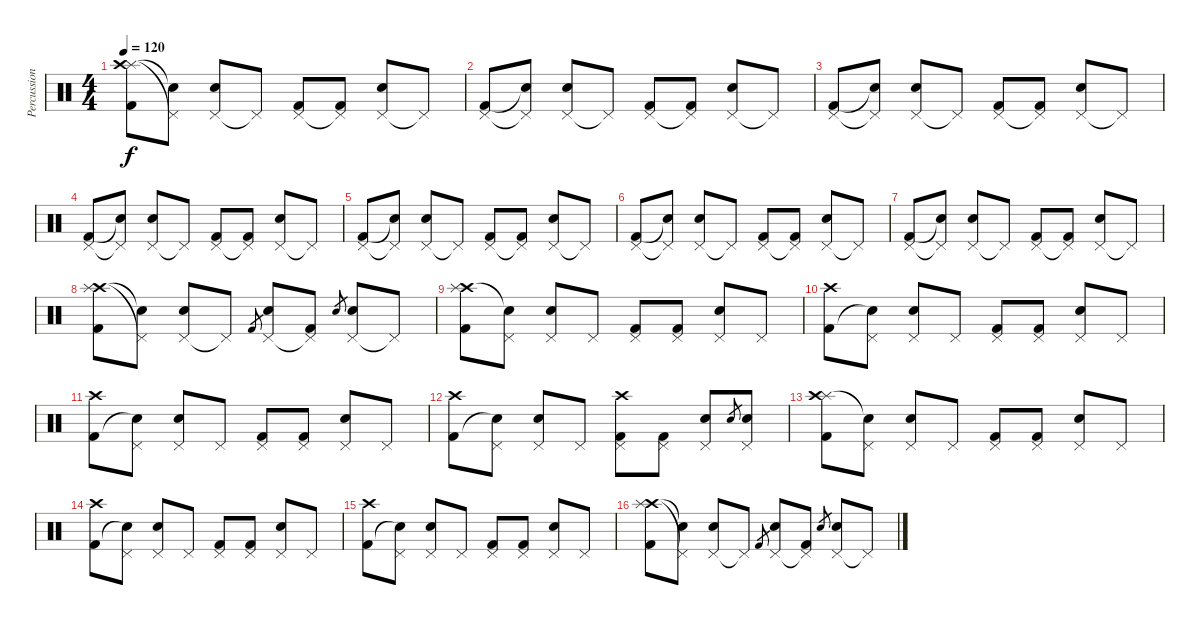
\track ("Percussion" "Percussion") {instrument percussion}
\staff {score}
\articulation defaults
\ts (4 4)
\tempo 120
\clef neutral
\ks c
("Splash (hit)" "Crash high (hit)" "Kick (hit) 2").8{dy f} ("Pedal Hi-Hat (hit)"{t} "Snare (hit)"{t}).8 ("Pedal Hi-Hat (hit)" "Electric Snare (hit)").8 "Pedal Hi-Hat (hit)"{t}.8 ("Pedal Hi-Hat (hit)" "Kick (hit) 2").8 ("Pedal Hi-Hat (hit)"{t} "Kick (hit) 2").8 ("Pedal Hi-Hat (hit)" "Electric Snare (hit)").8 "Pedal Hi-Hat (hit)"{t}.8 |
("Pedal Hi-Hat (hit)" "Kick (hit) 2").8 ("Pedal Hi-Hat (hit)"{t} "Snare (hit)"{t}).8 ("Pedal Hi-Hat (hit)" "Electric Snare (hit)").8 "Pedal Hi-Hat (hit)"{t}.8 ("Pedal Hi-Hat (hit)" "Kick (hit) 2").8 ("Pedal Hi-Hat (hit)"{t} "Kick (hit) 2").8 ("Pedal Hi-Hat (hit)" "Electric Snare (hit)").8 "Pedal Hi-Hat (hit)"{t}.8 |
("Pedal Hi-Hat (hit)" "Kick (hit) 2").8 ("Pedal Hi-Hat (hit)"{t} "Snare (hit)"{t}).8 ("Pedal Hi-Hat (hit)" "Electric Snare (hit)").8 "Pedal Hi-Hat (hit)"{t}.8 ("Pedal Hi-Hat (hit)" "Kick (hit) 2").8 ("Pedal Hi-Hat (hit)"{t} "Kick (hit) 2").8 ("Pedal Hi-Hat (hit)" "Electric Snare (hit)").8 "Pedal Hi-Hat (hit)"{t}.8 |
("Pedal Hi-Hat (hit)" "Kick (hit) 2").8 ("Pedal Hi-Hat (hit)"{t} "Snare (hit)"{t}).8 ("Pedal Hi-Hat (hit)" "Electric Snare (hit)").8 "Pedal Hi-Hat (hit)"{t}.8 ("Pedal Hi-Hat (hit)" "Kick (hit) 2").8 ("Pedal Hi-Hat (hit)"{t} "Kick (hit) 2").8 ("Pedal Hi-Hat (hit)" "Electric Snare (hit)").8 "Pedal Hi-Hat (hit)"{t}.8 |
("Pedal Hi-Hat (hit)" "Kick (hit) 2").8 ("Pedal Hi-Hat (hit)"{t} "Snare (hit)"{t}).8 ("Pedal Hi-Hat (hit)" "Electric Snare (hit)").8 "Pedal Hi-Hat (hit)"{t}.8 ("Pedal Hi-Hat (hit)" "Kick (hit) 2").8 ("Pedal Hi-Hat (hit)"{t} "Kick (hit) 2").8 ("Pedal Hi-Hat (hit)" "Electric Snare (hit)").8 "Pedal Hi-Hat (hit)"{t}.8 |
("Pedal Hi-Hat (hit)" "Kick (hit) 2").8 ("Pedal Hi-Hat (hit)"{t} "Snare (hit)"{t}).8 ("Pedal Hi-Hat (hit)" "Electric Snare (hit)").8 "Pedal Hi-Hat (hit)"{t}.8 ("Pedal Hi-Hat (hit)" "Kick (hit) 2").8 ("Pedal Hi-Hat (hit)"{t} "Kick (hit) 2").8 ("Pedal Hi-Hat (hit)" "Electric Snare (hit)").8 "Pedal Hi-Hat (hit)"{t}.8 |
("Pedal Hi-Hat (hit)" "Kick (hit) 2").8 ("Pedal Hi-Hat (hit)"{t} "Snare (hit)"{t}).8 ("Pedal Hi-Hat (hit)" "Electric Snare (hit)").8 "Pedal Hi-Hat (hit)"{t}.8 ("Pedal Hi-Hat (hit)" "Kick (hit) 2").8 ("Pedal Hi-Hat (hit)"{t} "Kick (hit) 2").8 ("Pedal Hi-Hat (hit)" "Electric Snare (hit)").8 "Pedal Hi-Hat (hit)"{t}.8 |
("Crash high (hit)" "Splash (hit)" "Kick (hit) 2").8 ("Pedal Hi-Hat (hit)"{t} "Snare (hit)"{t}).8 ("Pedal Hi-Hat (hit)" "Electric Snare (hit)").8 "Pedal Hi-Hat (hit)"{t}.8 "Kick (hit) 2".8{gr} ("Pedal Hi-Hat (hit)" "Electric Snare (hit)").8 ("Pedal Hi-Hat (hit)"{t} "Kick (hit) 2").8 "Electric Snare (hit)".8{gr} ("Pedal Hi-Hat (hit)" "Electric Snare (hit)").8 "Pedal Hi-Hat (hit)"{t}.8 |
("Crash high (hit)" "Splash (hit)" "Kick (hit) 2").8 ("Pedal Hi-Hat (hit)" "Snare (hit)"{t}).8 ("Pedal Hi-Hat (hit)" "Electric Snare (hit)").8 "Pedal Hi-Hat (hit)".8 ("Pedal Hi-Hat (hit)" "Kick (hit) 2").8 ("Pedal Hi-Hat (hit)" "Kick (hit) 2").8 ("Pedal Hi-Hat (hit)" "Electric Snare (hit)").8 "Pedal Hi-Hat (hit)".8 |
("Crash high (hit)" "Kick (hit) 2").8 ("Pedal Hi-Hat (hit)" "Snare (hit)"{t}).8 ("Pedal Hi-Hat (hit)" "Electric Snare (hit)").8 "Pedal Hi-Hat (hit)".8 ("Pedal Hi-Hat (hit)" "Kick (hit) 2").8 ("Pedal Hi-Hat (hit)" "Kick (hit) 2").8 ("Pedal Hi-Hat (hit)" "Electric Snare (hit)").8 "Pedal Hi-Hat (hit)".8 |
("Crash high (hit)" "Kick (hit) 2").8 ("Pedal Hi-Hat (hit)" "Snare (hit)"{t}).8 ("Pedal Hi-Hat (hit)" "Electric Snare (hit)").8 "Pedal Hi-Hat (hit)".8 ("Pedal Hi-Hat (hit)" "Kick (hit) 2").8 ("Pedal Hi-Hat (hit)" "Kick (hit) 2").8 ("Pedal Hi-Hat (hit)" "Electric Snare (hit)").8 "Pedal Hi-Hat (hit)".8 |
("Crash high (hit)" "Kick (hit) 2").8 ("Pedal Hi-Hat (hit)" "Snare (hit)"{t}).8 ("Pedal Hi-Hat (hit)" "Electric Snare (hit)").8 "Pedal Hi-Hat (hit)".8 ("Crash high (hit)" "Pedal Hi-Hat (hit)" "Kick (hit) 2").8 ("Pedal Hi-Hat (hit)" "Kick (hit) 2").8 ("Pedal Hi-Hat (hit)" "Electric Snare (hit)").8 "Electric Snare (hit)".8{gr} ("Pedal Hi-Hat (hit)" "Electric Snare (hit)").8 |
("Splash (hit)" "Crash high (hit)" "Kick (hit) 2").8 ("Pedal Hi-Hat (hit)" "Snare (hit)"{t}).8 ("Pedal Hi-Hat (hit)" "Electric Snare (hit)").8 "Pedal Hi-Hat (hit)".8 ("Pedal Hi-Hat (hit)" "Kick (hit) 2").8 ("Pedal Hi-Hat (hit)" "Kick (hit) 2").8 ("Pedal Hi-Hat (hit)" "Electric Snare (hit)").8 "Pedal Hi-Hat (hit)".8 |
("Crash high (hit)" "Kick (hit) 2").8 ("Pedal Hi-Hat (hit)" "Snare (hit)"{t}).8 ("Pedal Hi-Hat (hit)" "Electric Snare (hit)").8 "Pedal Hi-Hat (hit)".8 ("Pedal Hi-Hat (hit)" "Kick (hit) 2").8 ("Pedal Hi-Hat (hit)" "Kick (hit) 2").8 ("Pedal Hi-Hat (hit)" "Electric Snare (hit)").8 "Pedal Hi-Hat (hit)".8 |
("Crash high (hit)" "Kick (hit) 2").8 ("Pedal Hi-Hat (hit)" "Snare (hit)"{t}).8 ("Pedal Hi-Hat (hit)" "Electric Snare (hit)").8 "Pedal Hi-Hat (hit)".8 ("Pedal Hi-Hat (hit)" "Kick (hit) 2").8 ("Pedal Hi-Hat (hit)" "Kick (hit) 2").8 ("Pedal Hi-Hat (hit)" "Electric Snare (hit)").8 "Pedal Hi-Hat (hit)".8 |
("Crash high (hit)" "Splash (hit)" "Kick (hit) 2").8 ("Pedal Hi-Hat (hit)"{t} "Snare (hit)"{t}).8 ("Pedal Hi-Hat (hit)" "Electric Snare (hit)").8 "Pedal Hi-Hat (hit)"{t}.8 "Kick (hit) 2".8{gr} ("Pedal Hi-Hat (hit)" "Electric Snare (hit)").8 ("Pedal Hi-Hat (hit)"{t} "Kick (hit) 2").8 "Electric Snare (hit)".8{gr} ("Pedal Hi-Hat (hit)" "Electric Snare (hit)").8 "Pedal Hi-Hat (hit)"{t}.8
